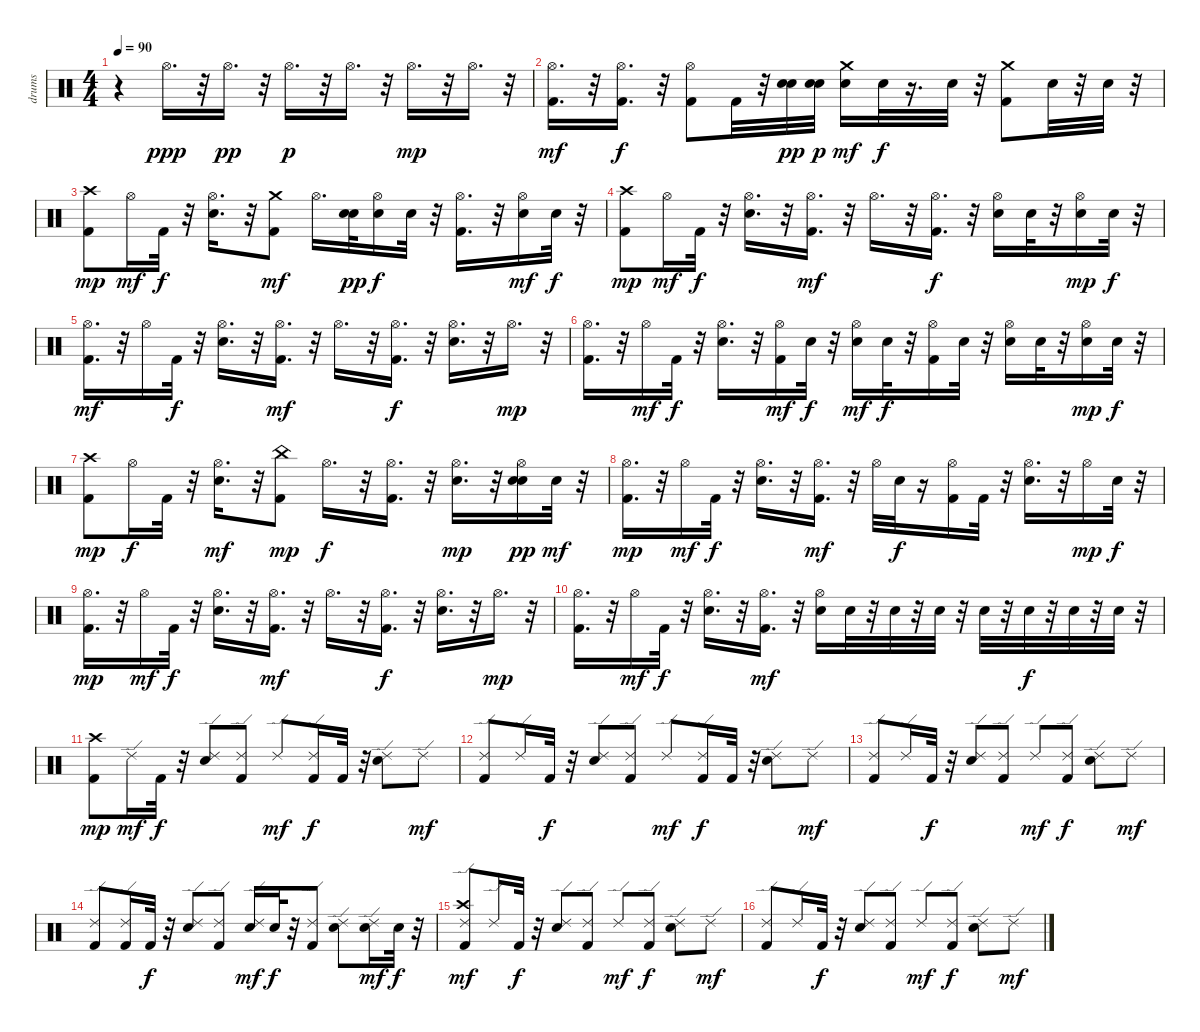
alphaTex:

\track ("drums" "drums") {instrument percussion}
\staff {score}
\articulation defaults
\ts (4 4)
\tempo 90
\clef neutral
\ks c
r.4{dy f} "Hi-Hat (open)".16{d dy ppp} r.32 "Hi-Hat (open)".16{d dy pp} r.32 "Hi-Hat (open)".16{d dy p} r.32 "Hi-Hat (open)".16{d} r.32 "Hi-Hat (open)".16{d dy mp} r.32 "Hi-Hat (open)".16{d} r.32 |
("Kick (hit) 2" "Hi-Hat (open)").16{d dy mf} r.32 ("Kick (hit) 2" "Hi-Hat (open)").16{d dy f} r.32 ("Kick (hit) 2" "Hi-Hat (open)").8 "Kick (hit) 2".32 r.32 ("Snare (hit) 2" "Snare (hit) 2").32{dy pp} ("Snare (hit) 2" "Snare (hit) 2").32{dy p} ("Snare (hit) 2" "Crash medium (hit)").16{dy mf} "Snare (hit) 2".32{dy f} r.16{d} "Snare (hit) 2".32 r.32 ("Kick (hit) 2" "Crash medium (hit)").8 "Snare (hit) 2".32 r.32 "Snare (hit) 2".32 r.32 |
("Kick (hit) 2" "Crash high (hit)").8{dy mp} "Hi-Hat (open)".16{dy mf} "Kick (hit) 2".32{dy f} r.32 ("Snare (hit) 2" "Hi-Hat (open)").16{d} r.32 ("Kick (hit) 2" "Crash medium (hit)").8{dy mf} "Hi-Hat (open)".16{d} ("Snare (hit) 2" "Snare (hit) 2").32{dy pp} ("Snare (hit) 2" "Hi-Hat (open)").16{dy f} "Snare (hit) 2".32 r.32 ("Kick (hit) 2" "Hi-Hat (open)").16{d} r.32 ("Snare (hit) 2" "Hi-Hat (open)").16{dy mf} "Snare (hit) 2".32{dy f} r.32 |
("Kick (hit) 2" "Crash high (hit)").8{dy mp} "Hi-Hat (open)".16{dy mf} "Kick (hit) 2".32{dy f} r.32 ("Snare (hit) 2" "Hi-Hat (open)").16{d} r.32 ("Kick (hit) 2" "Hi-Hat (open)").16{d dy mf} r.32 "Hi-Hat (open)".16{d} r.32 ("Kick (hit) 2" "Hi-Hat (open)").16{d dy f} r.32 ("Snare (hit) 2" "Hi-Hat (open)").16 "Snare (hit) 2".32 r.32 ("Snare (hit) 2" "Hi-Hat (open)").16{dy mp} "Snare (hit) 2".32{dy f} r.32 |
("Kick (hit) 2" "Hi-Hat (open)").16{d dy mf} r.32 "Hi-Hat (open)".16 "Kick (hit) 2".32{dy f} r.32 ("Snare (hit) 2" "Hi-Hat (open)").16{d} r.32 ("Kick (hit) 2" "Hi-Hat (open)").16{d dy mf} r.32 "Hi-Hat (open)".16{d} r.32 ("Kick (hit) 2" "Hi-Hat (open)").16{d dy f} r.32 ("Snare (hit) 2" "Hi-Hat (open)").16{d} r.32 "Hi-Hat (open)".16{d dy mp} r.32 |
("Kick (hit) 2" "Hi-Hat (open)").16{d} r.32 "Hi-Hat (open)".16{dy mf} "Kick (hit) 2".32{dy f} r.32 ("Snare (hit) 2" "Hi-Hat (open)").16{d} r.32 ("Kick (hit) 2" "Hi-Hat (open)").16{dy mf} "Snare (hit) 2".32{dy f} r.32 ("Snare (hit) 2" "Hi-Hat (open)").16{dy mf} "Snare (hit) 2".32{dy f} r.32 ("Kick (hit) 2" "Hi-Hat (open)").16 "Snare (hit) 2".32 r.32 ("Snare (hit) 2" "Hi-Hat (open)").16 "Snare (hit) 2".32 r.32 ("Snare (hit) 2" "Hi-Hat (open)").16{dy mp} "Snare (hit) 2".32{dy f} r.32 |
("Kick (hit) 2" "Crash high (hit)").8{dy mp} "Hi-Hat (open)".16{dy f} "Kick (hit) 2".32 r.32 ("Snare (hit) 2" "Hi-Hat (open)").16{d dy mf} r.32 ("Kick (hit) 2" "China (hit)").8{dy mp} "Hi-Hat (open)".16{d dy f} r.32 ("Kick (hit) 2" "Hi-Hat (open)").16{d} r.32 ("Snare (hit) 2" "Hi-Hat (open)").16{d dy mp} r.32 ("Snare (hit) 2" "Hi-Hat (open)" "Snare (hit) 2").16{dy pp} "Snare (hit) 2".32{dy mf} r.32 |
("Kick (hit) 2" "Hi-Hat (open)").16{d dy mp} r.32 "Hi-Hat (open)".16{dy mf} "Kick (hit) 2".32{dy f} r.32 ("Snare (hit) 2" "Hi-Hat (open)").16{d} r.32 ("Kick (hit) 2" "Hi-Hat (open)").16{d dy mf} r.32 "Hi-Hat (open)".32 "Snare (hit) 2".32{dy f} r.16 ("Kick (hit) 2" "Hi-Hat (open)").16 "Kick (hit) 2".32 r.32 ("Snare (hit) 2" "Hi-Hat (open)").16{d} r.32 "Hi-Hat (open)".16{dy mp} "Snare (hit) 2".32{dy f} r.32 |
("Kick (hit) 2" "Hi-Hat (open)").16{d dy mp} r.32 "Hi-Hat (open)".16{dy mf} "Kick (hit) 2".32{dy f} r.32 ("Snare (hit) 2" "Hi-Hat (open)").16{d} r.32 ("Kick (hit) 2" "Hi-Hat (open)").16{d dy mf} r.32 "Hi-Hat (open)".16{d} r.32 ("Kick (hit) 2" "Hi-Hat (open)").16{d dy f} r.32 ("Snare (hit) 2" "Hi-Hat (open)").16{d} r.32 "Hi-Hat (open)".16{d dy mp} r.32 |
("Kick (hit) 2" "Hi-Hat (open)").16{d} r.32 "Hi-Hat (open)".16{dy mf} "Kick (hit) 2".32{dy f} r.32 ("Snare (hit) 2" "Hi-Hat (open)").16{d} r.32 ("Kick (hit) 2" "Hi-Hat (open)").16{d dy mf} r.32 ("Snare (hit) 2" "Hi-Hat (open)").16 "Snare (hit) 2".32 r.32 "Snare (hit) 2".32 r.32 "Snare (hit) 2".32 r.32 "Snare (hit) 2".32 r.32 "Snare (hit) 2".32{dy f} r.32 "Snare (hit) 2".32 r.32 "Snare (hit) 2".32 r.32 |
("Kick (hit) 2" "Crash high (hit)").8{dy mp} "Ride (edge) 2".16{dy mf} "Kick (hit) 2".32{dy f} r.32 ("Snare (hit) 2" "Ride (edge) 2").8 ("Kick (hit) 2" "Ride (edge) 2").8 "Ride (edge) 2".8{dy mf} ("Kick (hit) 2" "Ride (edge) 2").16{dy f} "Kick (hit) 2".32 r.32 ("Snare (hit) 2" "Ride (edge) 2").8 "Ride (edge) 2".8{dy mf} |
("Kick (hit) 2" "Ride (edge) 2").8 "Ride (edge) 2".16 "Kick (hit) 2".32{dy f} r.32 ("Snare (hit) 2" "Ride (edge) 2").8 ("Kick (hit) 2" "Ride (edge) 2").8 "Ride (edge) 2".8{dy mf} ("Kick (hit) 2" "Ride (edge) 2").16{dy f} "Kick (hit) 2".32 r.32 ("Snare (hit) 2" "Ride (edge) 2").8 "Ride (edge) 2".8{dy mf} |
("Kick (hit) 2" "Ride (edge) 2").8 "Ride (edge) 2".16 "Kick (hit) 2".32{dy f} r.32 ("Snare (hit) 2" "Ride (edge) 2").8 ("Kick (hit) 2" "Ride (edge) 2").8 "Ride (edge) 2".8{dy mf} ("Kick (hit) 2" "Ride (edge) 2").8{dy f} ("Snare (hit) 2" "Ride (edge) 2").8 "Ride (edge) 2".8{dy mf} |
("Kick (hit) 2" "Ride (edge) 2").8 ("Kick (hit) 2" "Ride (edge) 2").16 "Kick (hit) 2".32{dy f} r.32 ("Snare (hit) 2" "Ride (edge) 2").8 ("Kick (hit) 2" "Ride (edge) 2").8 ("Snare (hit) 2" "Ride (edge) 2").16{dy mf} "Snare (hit) 2".32{dy f} r.32 ("Kick (hit) 2" "Ride (edge) 2").8 ("Snare (hit) 2" "Ride (edge) 2").8 ("Snare (hit) 2" "Ride (edge) 2").16{dy mf} "Snare (hit) 2".32{dy f} r.32 |
("Kick (hit) 2" "Crash high (hit)" "Ride (edge) 2").8{dy mf} "Ride (edge) 2".16 "Kick (hit) 2".32{dy f} r.32 ("Snare (hit) 2" "Ride (edge) 2").8 ("Kick (hit) 2" "Ride (edge) 2").8 "Ride (edge) 2".8{dy mf} ("Kick (hit) 2" "Ride (edge) 2").8{dy f} ("Snare (hit) 2" "Ride (edge) 2").8 "Ride (edge) 2".8{dy mf} |
("Kick (hit) 2" "Ride (edge) 2").8 "Ride (edge) 2".16 "Kick (hit) 2".32{dy f} r.32 ("Snare (hit) 2" "Ride (edge) 2").8 ("Kick (hit) 2" "Ride (edge) 2").8 "Ride (edge) 2".8{dy mf} ("Kick (hit) 2" "Ride (edge) 2").8{dy f} ("Snare (hit) 2" "Ride (edge) 2").8 "Ride (edge) 2".8{dy mf}
